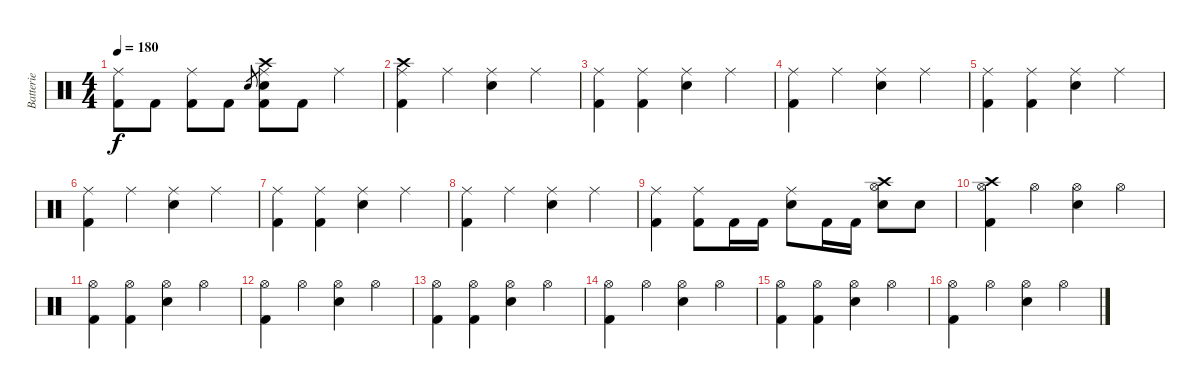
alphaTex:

\track ("Batterie" "Batterie") {instrument percussion}
\staff {score}
\articulation defaults
\ts (4 4)
\tempo 180
\clef neutral
\ks c
("Ride (middle)" "Kick (hit) 2").8{dy f} "Kick (hit) 2".8 ("Ride (middle)" "Kick (hit) 2").8 "Kick (hit) 2".8 "Electric Snare (hit)".8{gr} ("Crash high (hit)" "Ride (middle)" "Electric Snare (hit)" "Kick (hit) 2").8 "Kick (hit) 2".8 "Ride (middle)".4 |
("Crash high (hit)" "Ride (middle)" "Kick (hit) 2").4 "Ride (middle)".4 ("Ride (middle)" "Electric Snare (hit)").4 "Ride (middle)".4 |
("Ride (middle)" "Kick (hit) 2").4 ("Ride (middle)" "Kick (hit) 2").4 ("Ride (middle)" "Electric Snare (hit)").4 "Ride (middle)".4 |
("Ride (middle)" "Kick (hit) 2").4 "Ride (middle)".4 ("Ride (middle)" "Electric Snare (hit)").4 "Ride (middle)".4 |
("Ride (middle)" "Kick (hit) 2").4 ("Ride (middle)" "Kick (hit) 2").4 ("Ride (middle)" "Electric Snare (hit)").4 "Ride (middle)".4 |
("Ride (middle)" "Kick (hit) 2").4 "Ride (middle)".4 ("Ride (middle)" "Electric Snare (hit)").4 "Ride (middle)".4 |
("Ride (middle)" "Kick (hit) 2").4 ("Ride (middle)" "Kick (hit) 2").4 ("Ride (middle)" "Electric Snare (hit)").4 "Ride (middle)".4 |
("Ride (middle)" "Kick (hit) 2").4 "Ride (middle)".4 ("Ride (middle)" "Electric Snare (hit)").4 "Ride (middle)".4 |
("Ride (middle)" "Kick (hit) 2").4 ("Ride (middle)" "Kick (hit) 2").8 "Kick (hit) 2".16 "Kick (hit) 2".16 ("Ride (middle)" "Electric Snare (hit)").8 "Kick (hit) 2".16 "Kick (hit) 2".16 ("Crash high (hit)" "Hi-Hat (open)" "Electric Snare (hit)").8 "Electric Snare (hit)".8 |
("Crash high (hit)" "Hi-Hat (open)" "Kick (hit) 2").4 "Hi-Hat (open)".4 ("Hi-Hat (open)" "Electric Snare (hit)").4 "Hi-Hat (open)".4 |
("Hi-Hat (open)" "Kick (hit) 2").4 ("Hi-Hat (open)" "Kick (hit) 2").4 ("Hi-Hat (open)" "Electric Snare (hit)").4 "Hi-Hat (open)".4 |
("Hi-Hat (open)" "Kick (hit) 2").4 "Hi-Hat (open)".4 ("Hi-Hat (open)" "Electric Snare (hit)").4 "Hi-Hat (open)".4 |
("Hi-Hat (open)" "Kick (hit) 2").4 ("Hi-Hat (open)" "Kick (hit) 2").4 ("Hi-Hat (open)" "Electric Snare (hit)").4 "Hi-Hat (open)".4 |
("Hi-Hat (open)" "Kick (hit) 2").4 "Hi-Hat (open)".4 ("Hi-Hat (open)" "Electric Snare (hit)").4 "Hi-Hat (open)".4 |
("Hi-Hat (open)" "Kick (hit) 2").4 ("Hi-Hat (open)" "Kick (hit) 2").4 ("Hi-Hat (open)" "Electric Snare (hit)").4 "Hi-Hat (open)".4 |
("Hi-Hat (open)" "Kick (hit) 2").4 "Hi-Hat (open)".4 ("Hi-Hat (open)" "Electric Snare (hit)").4 "Hi-Hat (open)".4
